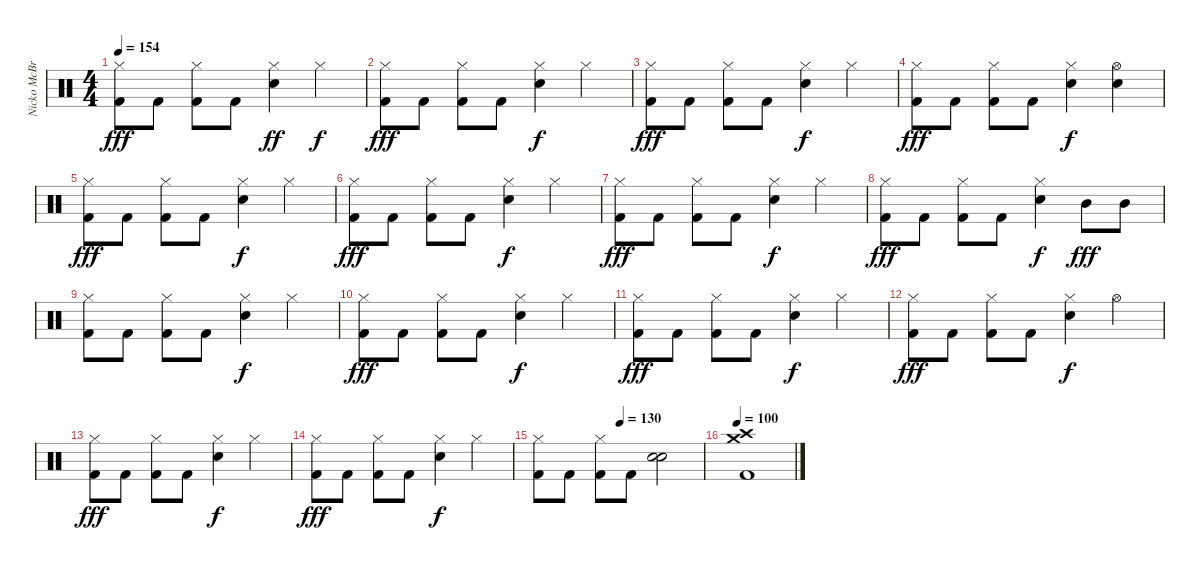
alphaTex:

\track ("Nicko McBrain" "Nicko McBr") {instrument percussion}
\staff {score}
\articulation defaults
\ts (4 4)
\tempo 154
\clef neutral
\ks c
("Hi-Hat (closed)" "Kick (hit) 2").8{dy fff} "Kick (hit) 2".8 ("Hi-Hat (closed)" "Kick (hit) 2").8 "Kick (hit) 2".8 ("Hi-Hat (closed)" "Electric Snare (hit)").4{dy ff} "Hi-Hat (closed)".4{dy f} |
("Hi-Hat (closed)" "Kick (hit) 2").8{dy fff} "Kick (hit) 2".8 ("Hi-Hat (closed)" "Kick (hit) 2").8 "Kick (hit) 2".8 ("Hi-Hat (closed)" "Electric Snare (hit)").4{dy f} "Hi-Hat (closed)".4 |
("Hi-Hat (closed)" "Kick (hit) 2").8{dy fff} "Kick (hit) 2".8 ("Hi-Hat (closed)" "Kick (hit) 2").8 "Kick (hit) 2".8 ("Hi-Hat (closed)" "Electric Snare (hit)").4{dy f} "Hi-Hat (closed)".4 |
("Hi-Hat (closed)" "Kick (hit) 2").8{dy fff} "Kick (hit) 2".8 ("Hi-Hat (closed)" "Kick (hit) 2").8 "Kick (hit) 2".8 ("Hi-Hat (closed)" "Electric Snare (hit)").4{dy f} ("Hi-Hat (open)" "Electric Snare (hit)").4 |
("Hi-Hat (closed)" "Kick (hit) 2").8{dy fff} "Kick (hit) 2".8 ("Hi-Hat (closed)" "Kick (hit) 2").8 "Kick (hit) 2".8 ("Hi-Hat (closed)" "Electric Snare (hit)").4{dy f} "Hi-Hat (closed)".4 |
("Hi-Hat (closed)" "Kick (hit) 2").8{dy fff} "Kick (hit) 2".8 ("Hi-Hat (closed)" "Kick (hit) 2").8 "Kick (hit) 2".8 ("Hi-Hat (closed)" "Electric Snare (hit)").4{dy f} "Hi-Hat (closed)".4 |
("Hi-Hat (closed)" "Kick (hit) 2").8{dy fff} "Kick (hit) 2".8 ("Hi-Hat (closed)" "Kick (hit) 2").8 "Kick (hit) 2".8 ("Hi-Hat (closed)" "Electric Snare (hit)").4{dy f} "Hi-Hat (closed)".4 |
("Hi-Hat (closed)" "Kick (hit) 2").8{dy fff} "Kick (hit) 2".8 ("Hi-Hat (closed)" "Kick (hit) 2").8 "Kick (hit) 2".8 ("Hi-Hat (closed)" "Electric Snare (hit)").4{dy f} "Mid Tom (hit)".8{dy fff} "Mid Tom (hit)".8 |
("Hi-Hat (closed)" "Kick (hit) 2").8 "Kick (hit) 2".8 ("Hi-Hat (closed)" "Kick (hit) 2").8 "Kick (hit) 2".8 ("Hi-Hat (closed)" "Electric Snare (hit)").4{dy f} "Hi-Hat (closed)".4 |
("Hi-Hat (closed)" "Kick (hit) 2").8{dy fff} "Kick (hit) 2".8 ("Hi-Hat (closed)" "Kick (hit) 2").8 "Kick (hit) 2".8 ("Hi-Hat (closed)" "Electric Snare (hit)").4{dy f} "Hi-Hat (closed)".4 |
("Hi-Hat (closed)" "Kick (hit) 2").8{dy fff} "Kick (hit) 2".8 ("Hi-Hat (closed)" "Kick (hit) 2").8 "Kick (hit) 2".8 ("Hi-Hat (closed)" "Electric Snare (hit)").4{dy f} "Hi-Hat (closed)".4 |
("Hi-Hat (closed)" "Kick (hit) 2").8{dy fff} "Kick (hit) 2".8 ("Hi-Hat (closed)" "Kick (hit) 2").8 "Kick (hit) 2".8 ("Hi-Hat (closed)" "Electric Snare (hit)").4{dy f} "Hi-Hat (open)".4 |
("Hi-Hat (closed)" "Kick (hit) 2").8{dy fff} "Kick (hit) 2".8 ("Hi-Hat (closed)" "Kick (hit) 2").8 "Kick (hit) 2".8 ("Hi-Hat (closed)" "Electric Snare (hit)").4{dy f} "Hi-Hat (closed)".4 |
("Hi-Hat (closed)" "Kick (hit) 2").8{dy fff} "Kick (hit) 2".8 ("Hi-Hat (closed)" "Kick (hit) 2").8 "Kick (hit) 2".8 ("Hi-Hat (closed)" "Electric Snare (hit)").4{dy f} "Hi-Hat (closed)".4 |
\tempo (130 0.5)
("Hi-Hat (closed)" "Kick (hit) 2").8 "Kick (hit) 2".8 ("Hi-Hat (closed)" "Kick (hit) 2").8 "Kick (hit) 2".8 ("Electric Snare (hit)" "Snare (hit) 2").2 |
\tempo 100
("Crash medium (hit)" "Kick (hit) 2" "Crash high (hit)").1
